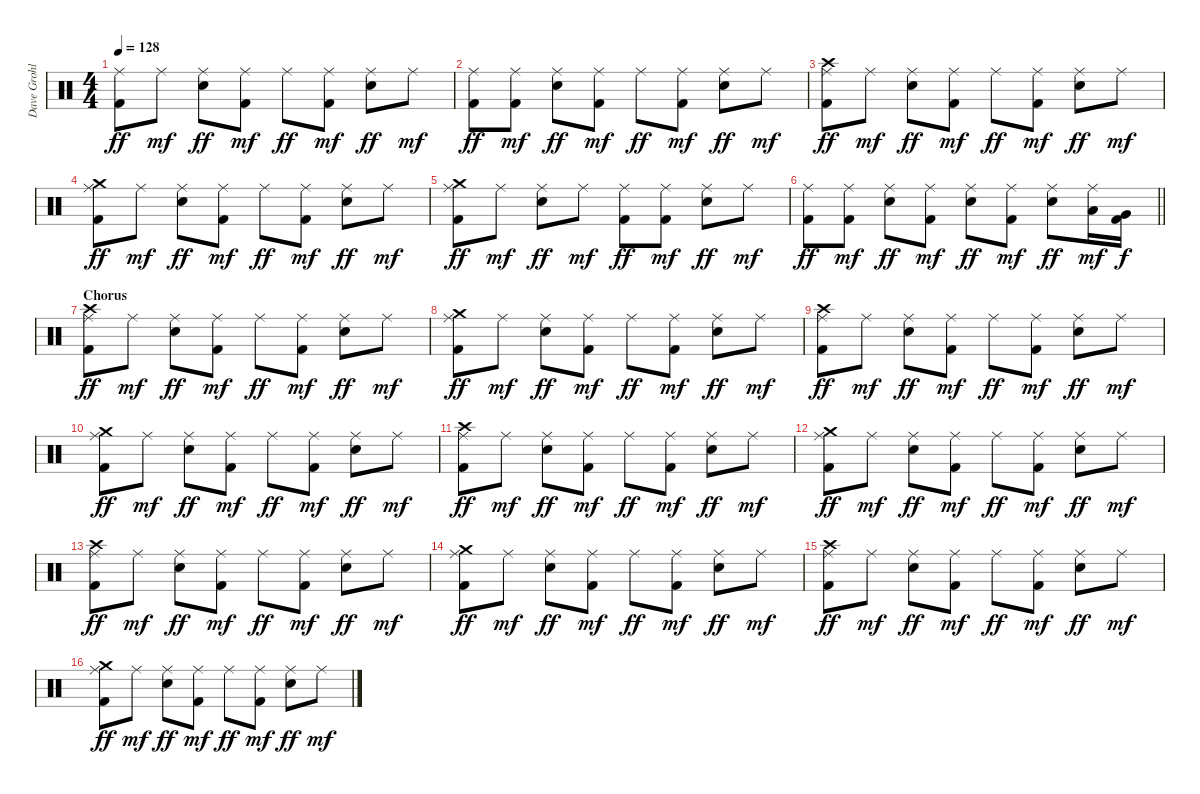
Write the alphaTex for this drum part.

\track ("Dave Grohl" "Dave Grohl") {instrument percussion}
\staff {score}
\articulation defaults
\ts (4 4)
\tempo 128
\clef neutral
\ks c
("Ride (middle)" "Kick (hit) 2").8{dy ff} "Ride (middle)".8{dy mf} ("Ride (middle)" "Snare (hit) 2").8{dy ff} ("Ride (middle)" "Kick (hit) 2").8{dy mf} "Ride (middle)".8{dy ff} ("Ride (middle)" "Kick (hit) 2").8{dy mf} ("Ride (middle)" "Snare (hit) 2").8{dy ff} "Ride (middle)".8{dy mf} |
("Ride (middle)" "Kick (hit) 2").8{dy ff} ("Ride (middle)" "Kick (hit) 2").8{dy mf} ("Ride (middle)" "Snare (hit) 2").8{dy ff} ("Ride (middle)" "Kick (hit) 2").8{dy mf} "Ride (middle)".8{dy ff} ("Ride (middle)" "Kick (hit) 2").8{dy mf} ("Ride (middle)" "Snare (hit) 2").8{dy ff} "Ride (middle)".8{dy mf} |
("Crash high (hit)" "Ride (middle)" "Kick (hit) 2").8{dy ff} "Ride (middle)".8{dy mf} ("Ride (middle)" "Snare (hit) 2").8{dy ff} ("Ride (middle)" "Kick (hit) 2").8{dy mf} "Ride (middle)".8{dy ff} ("Ride (middle)" "Kick (hit) 2").8{dy mf} ("Ride (middle)" "Snare (hit) 2").8{dy ff} "Ride (middle)".8{dy mf} |
("Crash medium (hit)" "Ride (middle)" "Kick (hit) 2").8{dy ff} "Ride (middle)".8{dy mf} ("Ride (middle)" "Snare (hit) 2").8{dy ff} ("Ride (middle)" "Kick (hit) 2").8{dy mf} "Ride (middle)".8{dy ff} ("Ride (middle)" "Kick (hit) 2").8{dy mf} ("Ride (middle)" "Snare (hit) 2").8{dy ff} "Ride (middle)".8{dy mf} |
("Crash medium (hit)" "Ride (middle)" "Kick (hit) 2").8{dy ff} "Ride (middle)".8{dy mf} ("Ride (middle)" "Snare (hit) 2").8{dy ff} "Ride (middle)".8{dy mf} ("Ride (middle)" "Kick (hit) 2").8{dy ff} ("Ride (middle)" "Kick (hit) 2").8{dy mf} ("Ride (middle)" "Snare (hit) 2").8{dy ff} "Ride (middle)".8{dy mf} |
\barLineRight lightlight
("Ride (middle)" "Kick (hit) 2").8{dy ff} ("Ride (middle)" "Kick (hit) 2").8{dy mf} ("Ride (middle)" "Snare (hit) 2").8{dy ff} ("Ride (middle)" "Kick (hit) 2").8{dy mf} ("Ride (middle)" "Snare (hit) 2").8{dy ff} ("Ride (middle)" "Kick (hit) 2").8{dy mf} ("Ride (middle)" "Snare (hit) 2").8{dy ff} ("Ride (middle)" "Low Tom (hit)").16{dy mf} ("Very Low Tom (hit)" "Kick (hit) 2").16{dy f} |
\section ("" "Chorus")
("Crash high (hit)" "Ride (middle)" "Kick (hit) 2").8{dy ff} "Ride (middle)".8{dy mf} ("Ride (middle)" "Snare (hit) 2").8{dy ff} ("Ride (middle)" "Kick (hit) 2").8{dy mf} "Ride (middle)".8{dy ff} ("Ride (middle)" "Kick (hit) 2").8{dy mf} ("Ride (middle)" "Snare (hit) 2").8{dy ff} "Ride (middle)".8{dy mf} |
("Crash medium (hit)" "Ride (middle)" "Kick (hit) 2").8{dy ff} "Ride (middle)".8{dy mf} ("Ride (middle)" "Snare (hit) 2").8{dy ff} ("Ride (middle)" "Kick (hit) 2").8{dy mf} "Ride (middle)".8{dy ff} ("Ride (middle)" "Kick (hit) 2").8{dy mf} ("Ride (middle)" "Snare (hit) 2").8{dy ff} "Ride (middle)".8{dy mf} |
("Crash high (hit)" "Ride (middle)" "Kick (hit) 2").8{dy ff} "Ride (middle)".8{dy mf} ("Ride (middle)" "Snare (hit) 2").8{dy ff} ("Ride (middle)" "Kick (hit) 2").8{dy mf} "Ride (middle)".8{dy ff} ("Ride (middle)" "Kick (hit) 2").8{dy mf} ("Ride (middle)" "Snare (hit) 2").8{dy ff} "Ride (middle)".8{dy mf} |
("Crash medium (hit)" "Ride (middle)" "Kick (hit) 2").8{dy ff} "Ride (middle)".8{dy mf} ("Ride (middle)" "Snare (hit) 2").8{dy ff} ("Ride (middle)" "Kick (hit) 2").8{dy mf} "Ride (middle)".8{dy ff} ("Ride (middle)" "Kick (hit) 2").8{dy mf} ("Ride (middle)" "Snare (hit) 2").8{dy ff} "Ride (middle)".8{dy mf} |
("Crash high (hit)" "Ride (middle)" "Kick (hit) 2").8{dy ff} "Ride (middle)".8{dy mf} ("Ride (middle)" "Snare (hit) 2").8{dy ff} ("Ride (middle)" "Kick (hit) 2").8{dy mf} "Ride (middle)".8{dy ff} ("Ride (middle)" "Kick (hit) 2").8{dy mf} ("Ride (middle)" "Snare (hit) 2").8{dy ff} "Ride (middle)".8{dy mf} |
("Crash medium (hit)" "Ride (middle)" "Kick (hit) 2").8{dy ff} "Ride (middle)".8{dy mf} ("Ride (middle)" "Snare (hit) 2").8{dy ff} ("Ride (middle)" "Kick (hit) 2").8{dy mf} "Ride (middle)".8{dy ff} ("Ride (middle)" "Kick (hit) 2").8{dy mf} ("Ride (middle)" "Snare (hit) 2").8{dy ff} "Ride (middle)".8{dy mf} |
("Crash high (hit)" "Ride (middle)" "Kick (hit) 2").8{dy ff} "Ride (middle)".8{dy mf} ("Ride (middle)" "Snare (hit) 2").8{dy ff} ("Ride (middle)" "Kick (hit) 2").8{dy mf} "Ride (middle)".8{dy ff} ("Ride (middle)" "Kick (hit) 2").8{dy mf} ("Ride (middle)" "Snare (hit) 2").8{dy ff} "Ride (middle)".8{dy mf} |
("Crash medium (hit)" "Ride (middle)" "Kick (hit) 2").8{dy ff} "Ride (middle)".8{dy mf} ("Ride (middle)" "Snare (hit) 2").8{dy ff} ("Ride (middle)" "Kick (hit) 2").8{dy mf} "Ride (middle)".8{dy ff} ("Ride (middle)" "Kick (hit) 2").8{dy mf} ("Ride (middle)" "Snare (hit) 2").8{dy ff} "Ride (middle)".8{dy mf} |
("Crash high (hit)" "Ride (middle)" "Kick (hit) 2").8{dy ff} "Ride (middle)".8{dy mf} ("Ride (middle)" "Snare (hit) 2").8{dy ff} ("Ride (middle)" "Kick (hit) 2").8{dy mf} "Ride (middle)".8{dy ff} ("Ride (middle)" "Kick (hit) 2").8{dy mf} ("Ride (middle)" "Snare (hit) 2").8{dy ff} "Ride (middle)".8{dy mf} |
("Crash medium (hit)" "Ride (middle)" "Kick (hit) 2").8{dy ff} "Ride (middle)".8{dy mf} ("Ride (middle)" "Snare (hit) 2").8{dy ff} ("Ride (middle)" "Kick (hit) 2").8{dy mf} "Ride (middle)".8{dy ff} ("Ride (middle)" "Kick (hit) 2").8{dy mf} ("Ride (middle)" "Snare (hit) 2").8{dy ff} "Ride (middle)".8{dy mf}
